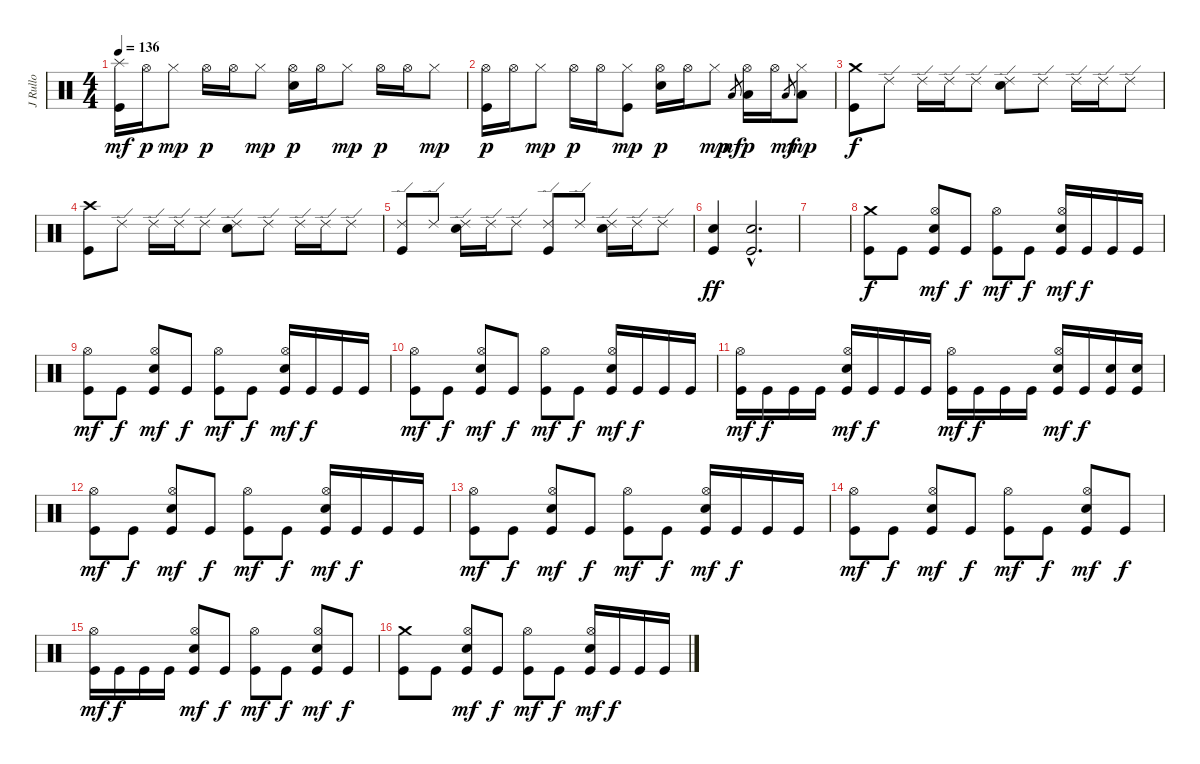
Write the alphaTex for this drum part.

\track ("J Rullo" "J Rullo") {instrument percussion}
\staff {score}
\articulation defaults
\ts (4 4)
\tempo 136
\clef neutral
\ks c
("Splash (hit)" "Kick (hit)").16{dy mf} "Hi-Hat (open)".16{dy p} "Hi-Hat (closed)".8{dy mp} "Hi-Hat (open)".16{dy p} "Hi-Hat (open)".16 "Hi-Hat (closed)".8{dy mp} ("Hi-Hat (open)" "Electric Snare (hit)").16{dy p} "Hi-Hat (open)".16 "Hi-Hat (closed)".8{dy mp} "Hi-Hat (open)".16{dy p} "Hi-Hat (open)".16 "Hi-Hat (closed)".8{dy mp} |
("Hi-Hat (open)" "Kick (hit)").16{dy p} "Hi-Hat (open)".16 "Hi-Hat (closed)".8{dy mp} "Hi-Hat (open)".16{dy p} "Hi-Hat (open)".16 ("Hi-Hat (closed)" "Kick (hit)").8{dy mp} ("Hi-Hat (open)" "Electric Snare (hit)").16{dy p} "Hi-Hat (open)".16 "Hi-Hat (closed)".8{dy mp} "Low Tom (hit)".8{gr dy mf} ("Hi-Hat (open)" "Low Tom (hit)").16{dy p} "Hi-Hat (open)".16 "Low Tom (hit)".8{gr dy mf} ("Hi-Hat (closed)" "Low Tom (hit)").8{dy mp} |
("Crash medium (hit)" "Kick (hit)").8{dy f} "Ride (edge) 2".8 "Ride (edge) 2".16 "Ride (edge) 2".16 "Ride (edge) 2".8 ("Ride (edge) 2" "Electric Snare (hit)").8 "Ride (edge) 2".8 "Ride (edge) 2".16 "Ride (edge) 2".16 "Ride (edge) 2".8 |
("Crash high (hit)" "Kick (hit)").8 "Ride (edge) 2".8 "Ride (edge) 2".16 "Ride (edge) 2".16 "Ride (edge) 2".8 ("Ride (edge) 2" "Electric Snare (hit)").8 "Ride (edge) 2".8 "Ride (edge) 2".16 "Ride (edge) 2".16 "Ride (edge) 2".8 |
("Ride (edge) 2" "Kick (hit)").8 "Ride (edge) 2".8 ("Ride (edge) 2" "Electric Snare (hit)").16 "Ride (edge) 2".16 "Ride (edge) 2".8 ("Ride (edge) 2" "Kick (hit)").8 "Ride (edge) 2".8 ("Ride (edge) 2" "Electric Snare (hit)").16 "Ride (edge) 2".16 "Ride (edge) 2".8 |
("Snare (hit) 2" "Kick (hit)").4{dy ff} ("Snare (hit) 2"{hac} "Kick (hit)"{hac}).2{d} |
|
("Crash medium (hit)" "Kick (hit)").8{dy f} "Kick (hit)".8 ("Hi-Hat (open)" "Electric Snare (hit)" "Kick (hit)").8{dy mf} "Kick (hit)".8{dy f} ("Hi-Hat (open)" "Kick (hit)").8{dy mf} "Kick (hit)".8{dy f} ("Hi-Hat (open)" "Electric Snare (hit)" "Kick (hit)").16{dy mf} "Kick (hit)".16{dy f} "Kick (hit)".16 "Kick (hit)".16 |
("Hi-Hat (open)" "Kick (hit)").8{dy mf} "Kick (hit)".8{dy f} ("Hi-Hat (open)" "Electric Snare (hit)" "Kick (hit)").8{dy mf} "Kick (hit)".8{dy f} ("Hi-Hat (open)" "Kick (hit)").8{dy mf} "Kick (hit)".8{dy f} ("Hi-Hat (open)" "Electric Snare (hit)" "Kick (hit)").16{dy mf} "Kick (hit)".16{dy f} "Kick (hit)".16 "Kick (hit)".16 |
("Hi-Hat (open)" "Kick (hit)").8{dy mf} "Kick (hit)".8{dy f} ("Hi-Hat (open)" "Electric Snare (hit)" "Kick (hit)").8{dy mf} "Kick (hit)".8{dy f} ("Hi-Hat (open)" "Kick (hit)").8{dy mf} "Kick (hit)".8{dy f} ("Hi-Hat (open)" "Electric Snare (hit)" "Kick (hit)").16{dy mf} "Kick (hit)".16{dy f} "Kick (hit)".16 "Kick (hit)".16 |
("Hi-Hat (open)" "Kick (hit)").16{dy mf} "Kick (hit)".16{dy f} "Kick (hit)".16 "Kick (hit)".16 ("Hi-Hat (open)" "Electric Snare (hit)" "Kick (hit)").16{dy mf} "Kick (hit)".16{dy f} "Kick (hit)".16 "Kick (hit)".16 ("Hi-Hat (open)" "Kick (hit)").16{dy mf} "Kick (hit)".16{dy f} "Kick (hit)".16 "Kick (hit)".16 ("Hi-Hat (open)" "Electric Snare (hit)" "Kick (hit)").16{dy mf} "Kick (hit)".16{dy f} ("Electric Snare (hit)" "Kick (hit)").16 ("Electric Snare (hit)" "Kick (hit)").16 |
("Hi-Hat (open)" "Kick (hit)").8{dy mf} "Kick (hit)".8{dy f} ("Hi-Hat (open)" "Electric Snare (hit)" "Kick (hit)").8{dy mf} "Kick (hit)".8{dy f} ("Hi-Hat (open)" "Kick (hit)").8{dy mf} "Kick (hit)".8{dy f} ("Hi-Hat (open)" "Electric Snare (hit)" "Kick (hit)").16{dy mf} "Kick (hit)".16{dy f} "Kick (hit)".16 "Kick (hit)".16 |
("Hi-Hat (open)" "Kick (hit)").8{dy mf} "Kick (hit)".8{dy f} ("Hi-Hat (open)" "Electric Snare (hit)" "Kick (hit)").8{dy mf} "Kick (hit)".8{dy f} ("Hi-Hat (open)" "Kick (hit)").8{dy mf} "Kick (hit)".8{dy f} ("Hi-Hat (open)" "Electric Snare (hit)" "Kick (hit)").16{dy mf} "Kick (hit)".16{dy f} "Kick (hit)".16 "Kick (hit)".16 |
("Hi-Hat (open)" "Kick (hit)").8{dy mf} "Kick (hit)".8{dy f} ("Hi-Hat (open)" "Electric Snare (hit)" "Kick (hit)").8{dy mf} "Kick (hit)".8{dy f} ("Hi-Hat (open)" "Kick (hit)").8{dy mf} "Kick (hit)".8{dy f} ("Hi-Hat (open)" "Electric Snare (hit)" "Kick (hit)").8{dy mf} "Kick (hit)".8{dy f} |
("Hi-Hat (open)" "Kick (hit)").16{dy mf} "Kick (hit)".16{dy f} "Kick (hit)".16 "Kick (hit)".16 ("Hi-Hat (open)" "Electric Snare (hit)" "Kick (hit)").8{dy mf} "Kick (hit)".8{dy f} ("Hi-Hat (open)" "Kick (hit)").8{dy mf} "Kick (hit)".8{dy f} ("Hi-Hat (open)" "Electric Snare (hit)" "Kick (hit)").8{dy mf} "Kick (hit)".8{dy f} |
("Crash medium (hit)" "Kick (hit)").8 "Kick (hit)".8 ("Hi-Hat (open)" "Electric Snare (hit)" "Kick (hit)").8{dy mf} "Kick (hit)".8{dy f} ("Hi-Hat (open)" "Kick (hit)").8{dy mf} "Kick (hit)".8{dy f} ("Hi-Hat (open)" "Electric Snare (hit)" "Kick (hit)").16{dy mf} "Kick (hit)".16{dy f} "Kick (hit)".16 "Kick (hit)".16
